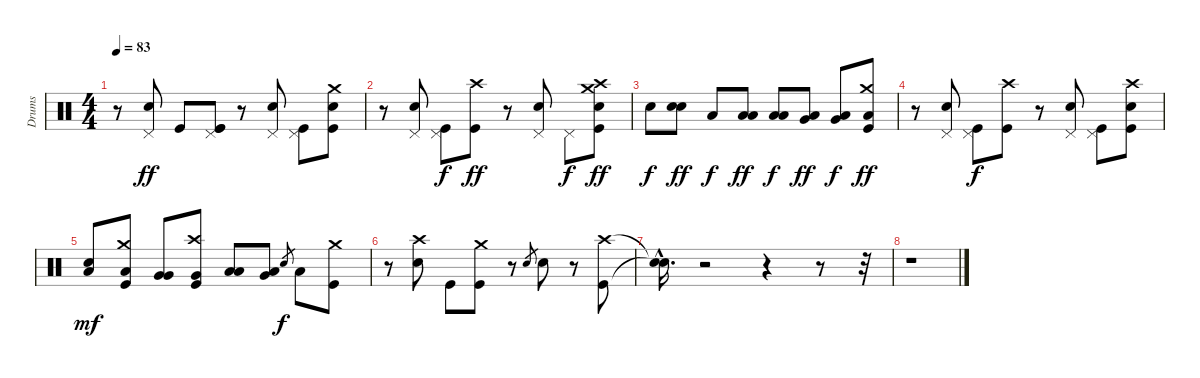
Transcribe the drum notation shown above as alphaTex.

\track ("Drums" "Drums") {instrument percussion}
\staff {score}
\articulation defaults
\ts (4 4)
\tempo 83
\clef neutral
\ks c
r.8{dy ff} ("Snare (hit) 2" "Pedal Hi-Hat (hit)").8 "Kick (hit)".8 ("Kick (hit)" "Pedal Hi-Hat (hit)" "Kick (hit)").8 r.8 ("Snare (hit) 2" "Pedal Hi-Hat (hit)").8 ("Pedal Hi-Hat (hit)" "Kick (hit)").8 ("Snare (hit) 2" "Kick (hit)" "Crash medium (hit)").8 |
r.8 ("Pedal Hi-Hat (hit)" "Snare (hit) 2").8 ("Pedal Hi-Hat (hit)" "Kick (hit)").8{dy f} ("Kick (hit)" "Crash high (hit)").8{dy ff} r.8 ("Snare (hit) 2" "Pedal Hi-Hat (hit)").8 "Pedal Hi-Hat (hit)".8{dy f} ("Snare (hit) 2" "Crash high (hit)" "Kick (hit)" "Crash medium (hit)").8{dy ff} |
"Snare (hit) 2".8{dy f} ("Snare (hit) 2" "Snare (hit) 2").8{dy ff} "Low Tom (hit)".8{dy f} ("Low Tom (hit)" "Low Tom (hit)").8{dy ff} ("Low Tom (hit)" "Low Tom (hit)").8{dy f} ("Low Tom (hit)" "Very Low Tom (hit)").8{dy ff} ("Very Low Tom (hit)" "Low Floor Tom (hit)").8{dy f} ("Low Floor Tom (hit)" "Kick (hit)" "Crash medium (hit)").8{dy ff} |
r.8 ("Pedal Hi-Hat (hit)" "Snare (hit) 2").8 ("Kick (hit)" "Pedal Hi-Hat (hit)").8{dy f} ("Kick (hit)" "Crash high (hit)").8 r.8 ("Snare (hit) 2" "Pedal Hi-Hat (hit)").8 ("Kick (hit)" "Pedal Hi-Hat (hit)").8 ("Snare (hit) 2" "Crash high (hit)" "Kick (hit)").8 |
("Snare (hit) 2" "Low Tom (hit)").8{dy mf} ("Low Tom (hit)" "Crash medium (hit)" "Kick (hit)").8 ("Very Low Tom (hit)" "Very Low Tom (hit)").8 ("Very Low Tom (hit)" "Crash high (hit)" "Kick (hit)").8 ("Low Tom (hit)" "Low Tom (hit)").8 ("Low Tom (hit)" "Very Low Tom (hit)").8 "Electric Snare (hit)".8{gr dy f} "Low Tom (hit)".8 ("Crash medium (hit)" "Kick (hit)").8 |
r.8 ("Snare (hit) 2" "Crash high (hit)").8 "Kick (hit)".8 ("Kick (hit)" "Crash medium (hit)").8 r.8 "Snare (hit) 2".8{gr} "Snare (hit) 2".8 r.8 ("Crash high (hit)" "Kick (hit)").8 |
("Snare (hit)"{hac t} "Snare (hit)"{hac t}).16{d} r.2 r.4 r.8 r.32 |
r.1
